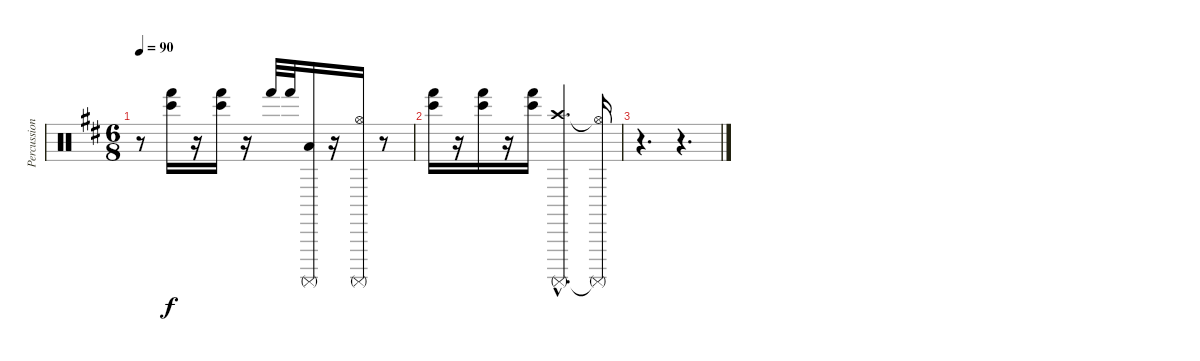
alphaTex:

\track ("Percussioni" "Percussion") {instrument percussion}
\staff {score}
\articulation defaults
\ts (6 8)
\tempo 90
\clef neutral
\ks bminor
r.8{dy f} ("Bongo High (hit)" "Hand (hit)").16 r.16 ("Bongo High (hit)" "Hand (hit)").16 r.16 "Hand (hit)".32 "Hand (hit)".32 ("Surdo (mute)" "Low Floor Tom (hit)").16 r.16 ("Surdo (mute)" "Hi-Hat (open)").16 r.8 |
("Bongo High (hit)" "Hand (hit)").16 r.16 ("Bongo High (hit)" "Hand (hit)").16 r.16 ("Bongo High (hit)" "Hand (hit)").16 ("Surdo (mute)"{hac} "Crash high (hit)"{hac}).4{d} ("Surdo (mute)"{t} "Hi-Hat (open)"{t}).16 |
r.4{d} r.4{d}
